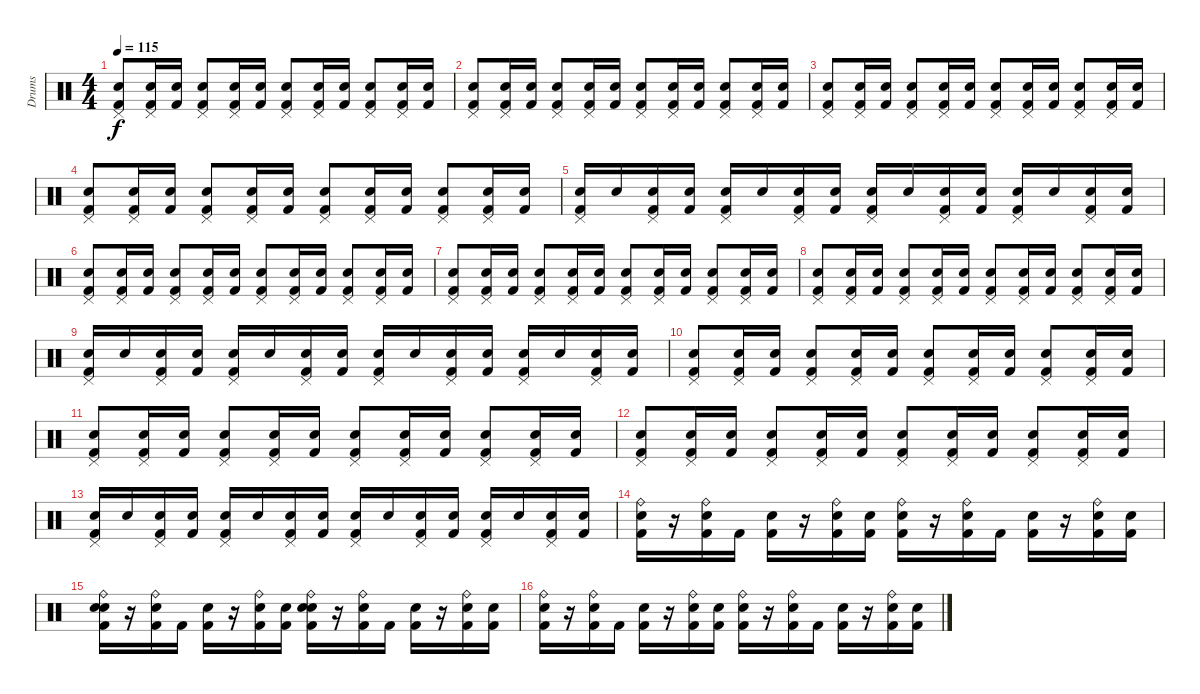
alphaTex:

\track ("Drums" "Drums") {instrument percussion}
\staff {score}
\articulation defaults
\ts (4 4)
\tempo 115
\clef neutral
\ks c
("Pedal Hi-Hat (hit)" "Kick (hit) 2" "Snare (hit) 2").8{dy f} ("Pedal Hi-Hat (hit)" "Kick (hit) 2" "Snare (hit) 2").16 ("Kick (hit) 2" "Snare (hit) 2").16 ("Pedal Hi-Hat (hit)" "Electric Snare (hit)" "Kick (hit) 2").8 ("Pedal Hi-Hat (hit)" "Kick (hit) 2" "Snare (hit) 2").16 ("Kick (hit) 2" "Snare (hit) 2").16 ("Pedal Hi-Hat (hit)" "Kick (hit) 2" "Snare (hit) 2").8 ("Pedal Hi-Hat (hit)" "Kick (hit) 2" "Snare (hit) 2").16 ("Kick (hit) 2" "Snare (hit) 2").16 ("Pedal Hi-Hat (hit)" "Electric Snare (hit)" "Kick (hit) 2").8 ("Pedal Hi-Hat (hit)" "Kick (hit) 2" "Snare (hit) 2").16 ("Kick (hit) 2" "Snare (hit) 2").16 |
("Pedal Hi-Hat (hit)" "Kick (hit) 2" "Snare (hit) 2").8 ("Pedal Hi-Hat (hit)" "Kick (hit) 2" "Snare (hit) 2").16 ("Kick (hit) 2" "Snare (hit) 2").16 ("Pedal Hi-Hat (hit)" "Electric Snare (hit)" "Kick (hit) 2").8 ("Pedal Hi-Hat (hit)" "Kick (hit) 2" "Snare (hit) 2").16 ("Kick (hit) 2" "Snare (hit) 2").16 ("Pedal Hi-Hat (hit)" "Kick (hit) 2" "Snare (hit) 2").8 ("Pedal Hi-Hat (hit)" "Kick (hit) 2" "Snare (hit) 2").16 ("Kick (hit) 2" "Snare (hit) 2").16 ("Pedal Hi-Hat (hit)" "Electric Snare (hit)" "Kick (hit) 2").8 ("Pedal Hi-Hat (hit)" "Kick (hit) 2" "Snare (hit) 2").16 ("Kick (hit) 2" "Snare (hit) 2").16 |
("Pedal Hi-Hat (hit)" "Kick (hit) 2" "Snare (hit) 2").8 ("Pedal Hi-Hat (hit)" "Kick (hit) 2" "Snare (hit) 2").16 ("Kick (hit) 2" "Snare (hit) 2").16 ("Pedal Hi-Hat (hit)" "Electric Snare (hit)" "Kick (hit) 2").8 ("Pedal Hi-Hat (hit)" "Kick (hit) 2" "Snare (hit) 2").16 ("Kick (hit) 2" "Snare (hit) 2").16 ("Pedal Hi-Hat (hit)" "Kick (hit) 2" "Snare (hit) 2").8 ("Pedal Hi-Hat (hit)" "Kick (hit) 2" "Snare (hit) 2").16 ("Kick (hit) 2" "Snare (hit) 2").16 ("Pedal Hi-Hat (hit)" "Electric Snare (hit)" "Kick (hit) 2").8 ("Pedal Hi-Hat (hit)" "Kick (hit) 2" "Snare (hit) 2").16 ("Kick (hit) 2" "Snare (hit) 2").16 |
("Pedal Hi-Hat (hit)" "Kick (hit) 2" "Snare (hit) 2").8 ("Pedal Hi-Hat (hit)" "Kick (hit) 2" "Snare (hit) 2").16 ("Kick (hit) 2" "Snare (hit) 2").16 ("Pedal Hi-Hat (hit)" "Electric Snare (hit)" "Kick (hit) 2").8 ("Pedal Hi-Hat (hit)" "Kick (hit) 2" "Snare (hit) 2").16 ("Kick (hit) 2" "Snare (hit) 2").16 ("Pedal Hi-Hat (hit)" "Kick (hit) 2" "Snare (hit) 2").8 ("Pedal Hi-Hat (hit)" "Kick (hit) 2" "Snare (hit) 2").16 ("Kick (hit) 2" "Snare (hit) 2").16 ("Pedal Hi-Hat (hit)" "Electric Snare (hit)" "Kick (hit) 2").8 ("Pedal Hi-Hat (hit)" "Kick (hit) 2" "Snare (hit) 2").16 ("Kick (hit) 2" "Snare (hit) 2").16 |
("Pedal Hi-Hat (hit)" "Kick (hit) 2" "Snare (hit) 2").16 "Snare (hit) 2".16 ("Pedal Hi-Hat (hit)" "Kick (hit) 2" "Snare (hit) 2").16 ("Kick (hit) 2" "Snare (hit) 2").16 ("Pedal Hi-Hat (hit)" "Kick (hit) 2" "Snare (hit) 2").16 "Snare (hit) 2".16 ("Pedal Hi-Hat (hit)" "Kick (hit) 2" "Snare (hit) 2").16 ("Kick (hit) 2" "Snare (hit) 2").16 ("Pedal Hi-Hat (hit)" "Kick (hit) 2" "Electric Snare (hit)").16 "Electric Snare (hit)".16 ("Pedal Hi-Hat (hit)" "Kick (hit) 2" "Electric Snare (hit)").16 ("Kick (hit) 2" "Electric Snare (hit)").16 ("Pedal Hi-Hat (hit)" "Kick (hit) 2" "Electric Snare (hit)").16 "Electric Snare (hit)".16 ("Pedal Hi-Hat (hit)" "Kick (hit) 2" "Electric Snare (hit)").16 ("Kick (hit) 2" "Electric Snare (hit)").16 |
("Pedal Hi-Hat (hit)" "Kick (hit) 2" "Snare (hit) 2").8 ("Pedal Hi-Hat (hit)" "Kick (hit) 2" "Snare (hit) 2").16 ("Kick (hit) 2" "Snare (hit) 2").16 ("Pedal Hi-Hat (hit)" "Electric Snare (hit)" "Kick (hit) 2").8 ("Pedal Hi-Hat (hit)" "Kick (hit) 2" "Snare (hit) 2").16 ("Kick (hit) 2" "Snare (hit) 2").16 ("Pedal Hi-Hat (hit)" "Kick (hit) 2" "Snare (hit) 2").8 ("Pedal Hi-Hat (hit)" "Kick (hit) 2" "Snare (hit) 2").16 ("Kick (hit) 2" "Snare (hit) 2").16 ("Pedal Hi-Hat (hit)" "Electric Snare (hit)" "Kick (hit) 2").8 ("Pedal Hi-Hat (hit)" "Kick (hit) 2" "Snare (hit) 2").16 ("Kick (hit) 2" "Snare (hit) 2").16 |
("Pedal Hi-Hat (hit)" "Kick (hit) 2" "Snare (hit) 2").8 ("Pedal Hi-Hat (hit)" "Kick (hit) 2" "Snare (hit) 2").16 ("Kick (hit) 2" "Snare (hit) 2").16 ("Pedal Hi-Hat (hit)" "Electric Snare (hit)" "Kick (hit) 2").8 ("Pedal Hi-Hat (hit)" "Kick (hit) 2" "Snare (hit) 2").16 ("Kick (hit) 2" "Snare (hit) 2").16 ("Pedal Hi-Hat (hit)" "Kick (hit) 2" "Snare (hit) 2").8 ("Pedal Hi-Hat (hit)" "Kick (hit) 2" "Snare (hit) 2").16 ("Kick (hit) 2" "Snare (hit) 2").16 ("Pedal Hi-Hat (hit)" "Electric Snare (hit)" "Kick (hit) 2").8 ("Pedal Hi-Hat (hit)" "Kick (hit) 2" "Snare (hit) 2").16 ("Kick (hit) 2" "Snare (hit) 2").16 |
("Pedal Hi-Hat (hit)" "Kick (hit) 2" "Snare (hit) 2").8 ("Pedal Hi-Hat (hit)" "Kick (hit) 2" "Snare (hit) 2").16 ("Kick (hit) 2" "Snare (hit) 2").16 ("Pedal Hi-Hat (hit)" "Electric Snare (hit)" "Kick (hit) 2").8 ("Pedal Hi-Hat (hit)" "Kick (hit) 2" "Snare (hit) 2").16 ("Kick (hit) 2" "Snare (hit) 2").16 ("Pedal Hi-Hat (hit)" "Kick (hit) 2" "Snare (hit) 2").8 ("Pedal Hi-Hat (hit)" "Kick (hit) 2" "Snare (hit) 2").16 ("Kick (hit) 2" "Snare (hit) 2").16 ("Pedal Hi-Hat (hit)" "Electric Snare (hit)" "Kick (hit) 2").8 ("Pedal Hi-Hat (hit)" "Kick (hit) 2" "Snare (hit) 2").16 ("Kick (hit) 2" "Snare (hit) 2").16 |
("Pedal Hi-Hat (hit)" "Kick (hit) 2" "Snare (hit) 2").16 "Snare (hit) 2".16 ("Pedal Hi-Hat (hit)" "Kick (hit) 2" "Snare (hit) 2").16 ("Kick (hit) 2" "Snare (hit) 2").16 ("Pedal Hi-Hat (hit)" "Kick (hit) 2" "Snare (hit) 2").16 "Snare (hit) 2".16 ("Pedal Hi-Hat (hit)" "Kick (hit) 2" "Snare (hit) 2").16 ("Kick (hit) 2" "Snare (hit) 2").16 ("Pedal Hi-Hat (hit)" "Kick (hit) 2" "Electric Snare (hit)").16 "Electric Snare (hit)".16 ("Pedal Hi-Hat (hit)" "Kick (hit) 2" "Electric Snare (hit)").16 ("Kick (hit) 2" "Electric Snare (hit)").16 ("Pedal Hi-Hat (hit)" "Kick (hit) 2" "Electric Snare (hit)").16 "Electric Snare (hit)".16 ("Pedal Hi-Hat (hit)" "Kick (hit) 2" "Electric Snare (hit)").16 ("Kick (hit) 2" "Electric Snare (hit)").16 |
("Pedal Hi-Hat (hit)" "Kick (hit) 2" "Snare (hit) 2").8 ("Pedal Hi-Hat (hit)" "Kick (hit) 2" "Snare (hit) 2").16 ("Kick (hit) 2" "Snare (hit) 2").16 ("Pedal Hi-Hat (hit)" "Electric Snare (hit)" "Kick (hit) 2").8 ("Pedal Hi-Hat (hit)" "Kick (hit) 2" "Snare (hit) 2").16 ("Kick (hit) 2" "Snare (hit) 2").16 ("Pedal Hi-Hat (hit)" "Kick (hit) 2" "Snare (hit) 2").8 ("Pedal Hi-Hat (hit)" "Kick (hit) 2" "Snare (hit) 2").16 ("Kick (hit) 2" "Snare (hit) 2").16 ("Pedal Hi-Hat (hit)" "Electric Snare (hit)" "Kick (hit) 2").8 ("Pedal Hi-Hat (hit)" "Kick (hit) 2" "Snare (hit) 2").16 ("Kick (hit) 2" "Snare (hit) 2").16 |
("Pedal Hi-Hat (hit)" "Kick (hit) 2" "Snare (hit) 2").8 ("Pedal Hi-Hat (hit)" "Kick (hit) 2" "Snare (hit) 2").16 ("Kick (hit) 2" "Snare (hit) 2").16 ("Pedal Hi-Hat (hit)" "Electric Snare (hit)" "Kick (hit) 2").8 ("Pedal Hi-Hat (hit)" "Kick (hit) 2" "Snare (hit) 2").16 ("Kick (hit) 2" "Snare (hit) 2").16 ("Pedal Hi-Hat (hit)" "Kick (hit) 2" "Snare (hit) 2").8 ("Pedal Hi-Hat (hit)" "Kick (hit) 2" "Snare (hit) 2").16 ("Kick (hit) 2" "Snare (hit) 2").16 ("Pedal Hi-Hat (hit)" "Electric Snare (hit)" "Kick (hit) 2").8 ("Pedal Hi-Hat (hit)" "Kick (hit) 2" "Snare (hit) 2").16 ("Kick (hit) 2" "Snare (hit) 2").16 |
("Pedal Hi-Hat (hit)" "Kick (hit) 2" "Snare (hit) 2").8 ("Pedal Hi-Hat (hit)" "Kick (hit) 2" "Snare (hit) 2").16 ("Kick (hit) 2" "Snare (hit) 2").16 ("Pedal Hi-Hat (hit)" "Electric Snare (hit)" "Kick (hit) 2").8 ("Pedal Hi-Hat (hit)" "Kick (hit) 2" "Snare (hit) 2").16 ("Kick (hit) 2" "Snare (hit) 2").16 ("Pedal Hi-Hat (hit)" "Kick (hit) 2" "Snare (hit) 2").8 ("Pedal Hi-Hat (hit)" "Kick (hit) 2" "Snare (hit) 2").16 ("Kick (hit) 2" "Snare (hit) 2").16 ("Pedal Hi-Hat (hit)" "Electric Snare (hit)" "Kick (hit) 2").8 ("Pedal Hi-Hat (hit)" "Kick (hit) 2" "Snare (hit) 2").16 ("Kick (hit) 2" "Snare (hit) 2").16 |
("Pedal Hi-Hat (hit)" "Kick (hit) 2" "Snare (hit) 2").16 "Snare (hit) 2".16 ("Pedal Hi-Hat (hit)" "Kick (hit) 2" "Snare (hit) 2").16 ("Kick (hit) 2" "Snare (hit) 2").16 ("Pedal Hi-Hat (hit)" "Kick (hit) 2" "Snare (hit) 2").16 "Snare (hit) 2".16 ("Pedal Hi-Hat (hit)" "Kick (hit) 2" "Snare (hit) 2").16 ("Kick (hit) 2" "Snare (hit) 2").16 ("Pedal Hi-Hat (hit)" "Kick (hit) 2" "Electric Snare (hit)").16 "Electric Snare (hit)".16 ("Pedal Hi-Hat (hit)" "Kick (hit) 2" "Electric Snare (hit)").16 ("Kick (hit) 2" "Electric Snare (hit)").16 ("Pedal Hi-Hat (hit)" "Kick (hit) 2" "Electric Snare (hit)").16 "Electric Snare (hit)".16 ("Pedal Hi-Hat (hit)" "Kick (hit) 2" "Electric Snare (hit)").16 ("Kick (hit) 2" "Electric Snare (hit)").16 |
("Ride (bell)" "Snare (hit) 2" "Kick (hit) 2").16 r.16 ("Ride (bell)" "Snare (hit) 2" "Kick (hit) 2").16 "Kick (hit) 2".16 ("Electric Snare (hit)" "Kick (hit) 2").16 r.16 ("Ride (bell)" "Snare (hit) 2" "Kick (hit) 2").16 ("Snare (hit) 2" "Kick (hit) 2").16 ("Ride (bell)" "Snare (hit) 2" "Kick (hit) 2").16 r.16 ("Ride (bell)" "Snare (hit) 2" "Kick (hit) 2").16 "Kick (hit) 2".16 ("Electric Snare (hit)" "Kick (hit) 2").16 r.16 ("Ride (bell)" "Snare (hit) 2" "Kick (hit) 2").16 ("Snare (hit) 2" "Kick (hit) 2").16 |
("Ride (bell)" "Electric Snare (hit)" "Snare (hit) 2" "Kick (hit) 2").16 r.16 ("Ride (bell)" "Snare (hit) 2" "Kick (hit) 2").16 "Kick (hit) 2".16 ("Electric Snare (hit)" "Kick (hit) 2").16 r.16 ("Ride (bell)" "Snare (hit) 2" "Kick (hit) 2").16 ("Snare (hit) 2" "Kick (hit) 2").16 ("Ride (bell)" "Electric Snare (hit)" "Snare (hit) 2" "Kick (hit) 2").16 r.16 ("Ride (bell)" "Snare (hit) 2" "Kick (hit) 2").16 "Kick (hit) 2".16 ("Electric Snare (hit)" "Kick (hit) 2").16 r.16 ("Ride (bell)" "Snare (hit) 2" "Kick (hit) 2").16 ("Snare (hit) 2" "Kick (hit) 2").16 |
("Ride (bell)" "Snare (hit) 2" "Kick (hit) 2").16 r.16 ("Ride (bell)" "Snare (hit) 2" "Kick (hit) 2").16 "Kick (hit) 2".16 ("Electric Snare (hit)" "Kick (hit) 2").16 r.16 ("Ride (bell)" "Snare (hit) 2" "Kick (hit) 2").16 ("Snare (hit) 2" "Kick (hit) 2").16 ("Ride (bell)" "Snare (hit) 2" "Kick (hit) 2").16 r.16 ("Ride (bell)" "Snare (hit) 2" "Kick (hit) 2").16 "Kick (hit) 2".16 ("Electric Snare (hit)" "Kick (hit) 2").16 r.16 ("Ride (bell)" "Snare (hit) 2" "Kick (hit) 2").16 ("Snare (hit) 2" "Kick (hit) 2").16
